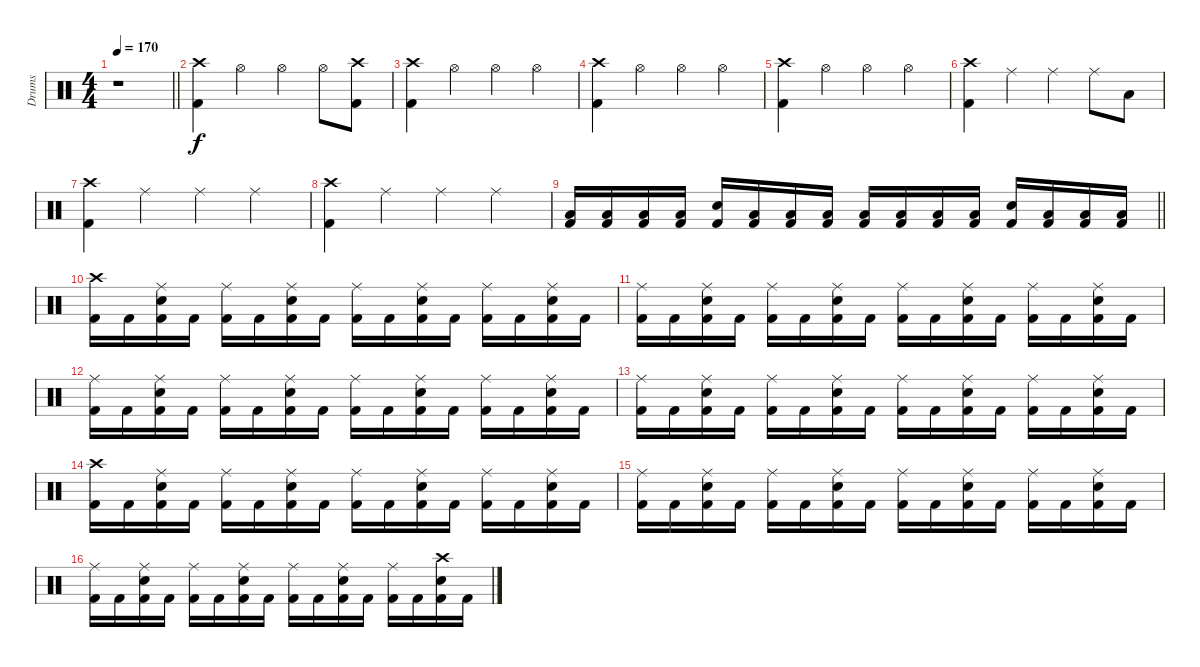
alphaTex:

\track ("Drums" "Drums") {instrument percussion}
\staff {score}
\articulation defaults
\ts (4 4)
\tempo 170
\clef neutral
\barLineRight lightlight
\ks c
r.1{dy f} |
("Crash high (hit)" "Kick (hit) 2").4 "Hi-Hat (open)".4 "Hi-Hat (open)".4 "Hi-Hat (open)".8 ("Crash high (hit)" "Kick (hit) 2").8 |
("Crash high (hit)" "Kick (hit) 2").4 "Hi-Hat (open)".4 "Hi-Hat (open)".4 "Hi-Hat (open)".4 |
("Crash high (hit)" "Kick (hit) 2").4 "Hi-Hat (open)".4 "Hi-Hat (open)".4 "Hi-Hat (open)".4 |
("Crash high (hit)" "Kick (hit) 2").4 "Hi-Hat (open)".4 "Hi-Hat (open)".4 "Hi-Hat (open)".4 |
("Crash high (hit)" "Kick (hit) 2").4 "Ride (middle)".4 "Ride (middle)".4 "Ride (middle)".8 "Low Tom (hit)".8 |
("Crash high (hit)" "Kick (hit) 2").4 "Ride (middle)".4 "Ride (middle)".4 "Ride (middle)".4 |
("Crash high (hit)" "Kick (hit) 2").4 "Ride (middle)".4 "Ride (middle)".4 "Ride (middle)".4 |
\barLineRight lightlight
("Low Floor Tom (hit)" "Kick (hit) 2").16 ("Low Floor Tom (hit)" "Kick (hit) 2").16 ("Low Tom (hit)" "Kick (hit) 2").16 ("Low Floor Tom (hit)" "Kick (hit) 2").16 ("Snare (hit) 2" "Kick (hit) 2").16 ("Low Floor Tom (hit)" "Kick (hit) 2").16 ("Low Floor Tom (hit)" "Kick (hit) 2").16 ("Low Floor Tom (hit)" "Kick (hit) 2").16 ("Low Floor Tom (hit)" "Kick (hit) 2").16 ("Low Floor Tom (hit)" "Kick (hit) 2").16 ("Low Tom (hit)" "Kick (hit) 2").16 ("Low Floor Tom (hit)" "Kick (hit) 2").16 ("Snare (hit) 2" "Kick (hit) 2").16 ("Low Floor Tom (hit)" "Kick (hit) 2").16 ("Low Floor Tom (hit)" "Kick (hit) 2").16 ("Low Floor Tom (hit)" "Kick (hit) 2").16 |
("Crash high (hit)" "Kick (hit) 2").16 "Kick (hit) 2".16 ("Ride (middle)" "Snare (hit) 2" "Kick (hit) 2").16 "Kick (hit) 2".16 ("Ride (middle)" "Kick (hit) 2").16 "Kick (hit) 2".16 ("Ride (middle)" "Snare (hit) 2" "Kick (hit) 2").16 "Kick (hit) 2".16 ("Ride (middle)" "Kick (hit) 2").16 "Kick (hit) 2".16 ("Ride (middle)" "Snare (hit) 2" "Kick (hit) 2").16 "Kick (hit) 2".16 ("Ride (middle)" "Kick (hit) 2").16 "Kick (hit) 2".16 ("Ride (middle)" "Snare (hit) 2" "Kick (hit) 2").16 "Kick (hit) 2".16 |
("Ride (middle)" "Kick (hit) 2").16 "Kick (hit) 2".16 ("Ride (middle)" "Snare (hit) 2" "Kick (hit) 2").16 "Kick (hit) 2".16 ("Ride (middle)" "Kick (hit) 2").16 "Kick (hit) 2".16 ("Ride (middle)" "Snare (hit) 2" "Kick (hit) 2").16 "Kick (hit) 2".16 ("Ride (middle)" "Kick (hit) 2").16 "Kick (hit) 2".16 ("Ride (middle)" "Snare (hit) 2" "Kick (hit) 2").16 "Kick (hit) 2".16 ("Ride (middle)" "Kick (hit) 2").16 "Kick (hit) 2".16 ("Ride (middle)" "Snare (hit) 2" "Kick (hit) 2").16 "Kick (hit) 2".16 |
("Ride (middle)" "Kick (hit) 2").16 "Kick (hit) 2".16 ("Ride (middle)" "Snare (hit) 2" "Kick (hit) 2").16 "Kick (hit) 2".16 ("Ride (middle)" "Kick (hit) 2").16 "Kick (hit) 2".16 ("Ride (middle)" "Snare (hit) 2" "Kick (hit) 2").16 "Kick (hit) 2".16 ("Ride (middle)" "Kick (hit) 2").16 "Kick (hit) 2".16 ("Ride (middle)" "Snare (hit) 2" "Kick (hit) 2").16 "Kick (hit) 2".16 ("Ride (middle)" "Kick (hit) 2").16 "Kick (hit) 2".16 ("Ride (middle)" "Snare (hit) 2" "Kick (hit) 2").16 "Kick (hit) 2".16 |
("Ride (middle)" "Kick (hit) 2").16 "Kick (hit) 2".16 ("Ride (middle)" "Snare (hit) 2" "Kick (hit) 2").16 "Kick (hit) 2".16 ("Ride (middle)" "Kick (hit) 2").16 "Kick (hit) 2".16 ("Ride (middle)" "Snare (hit) 2" "Kick (hit) 2").16 "Kick (hit) 2".16 ("Ride (middle)" "Kick (hit) 2").16 "Kick (hit) 2".16 ("Ride (middle)" "Snare (hit) 2" "Kick (hit) 2").16 "Kick (hit) 2".16 ("Ride (middle)" "Kick (hit) 2").16 "Kick (hit) 2".16 ("Ride (middle)" "Snare (hit) 2" "Kick (hit) 2").16 "Kick (hit) 2".16 |
("Crash high (hit)" "Kick (hit) 2").16 "Kick (hit) 2".16 ("Ride (middle)" "Snare (hit) 2" "Kick (hit) 2").16 "Kick (hit) 2".16 ("Ride (middle)" "Kick (hit) 2").16 "Kick (hit) 2".16 ("Ride (middle)" "Snare (hit) 2" "Kick (hit) 2").16 "Kick (hit) 2".16 ("Ride (middle)" "Kick (hit) 2").16 "Kick (hit) 2".16 ("Ride (middle)" "Snare (hit) 2" "Kick (hit) 2").16 "Kick (hit) 2".16 ("Ride (middle)" "Kick (hit) 2").16 "Kick (hit) 2".16 ("Ride (middle)" "Snare (hit) 2" "Kick (hit) 2").16 "Kick (hit) 2".16 |
("Ride (middle)" "Kick (hit) 2").16 "Kick (hit) 2".16 ("Ride (middle)" "Snare (hit) 2" "Kick (hit) 2").16 "Kick (hit) 2".16 ("Ride (middle)" "Kick (hit) 2").16 "Kick (hit) 2".16 ("Ride (middle)" "Snare (hit) 2" "Kick (hit) 2").16 "Kick (hit) 2".16 ("Ride (middle)" "Kick (hit) 2").16 "Kick (hit) 2".16 ("Ride (middle)" "Snare (hit) 2" "Kick (hit) 2").16 "Kick (hit) 2".16 ("Ride (middle)" "Kick (hit) 2").16 "Kick (hit) 2".16 ("Ride (middle)" "Snare (hit) 2" "Kick (hit) 2").16 "Kick (hit) 2".16 |
("Ride (middle)" "Kick (hit) 2").16 "Kick (hit) 2".16 ("Ride (middle)" "Snare (hit) 2" "Kick (hit) 2").16 "Kick (hit) 2".16 ("Ride (middle)" "Kick (hit) 2").16 "Kick (hit) 2".16 ("Ride (middle)" "Snare (hit) 2" "Kick (hit) 2").16 "Kick (hit) 2".16 ("Ride (middle)" "Kick (hit) 2").16 "Kick (hit) 2".16 ("Ride (middle)" "Snare (hit) 2" "Kick (hit) 2").16 "Kick (hit) 2".16 ("Ride (middle)" "Kick (hit) 2").16 "Kick (hit) 2".16 ("Crash high (hit)" "Snare (hit) 2" "Kick (hit) 2").16 "Kick (hit) 2".16
